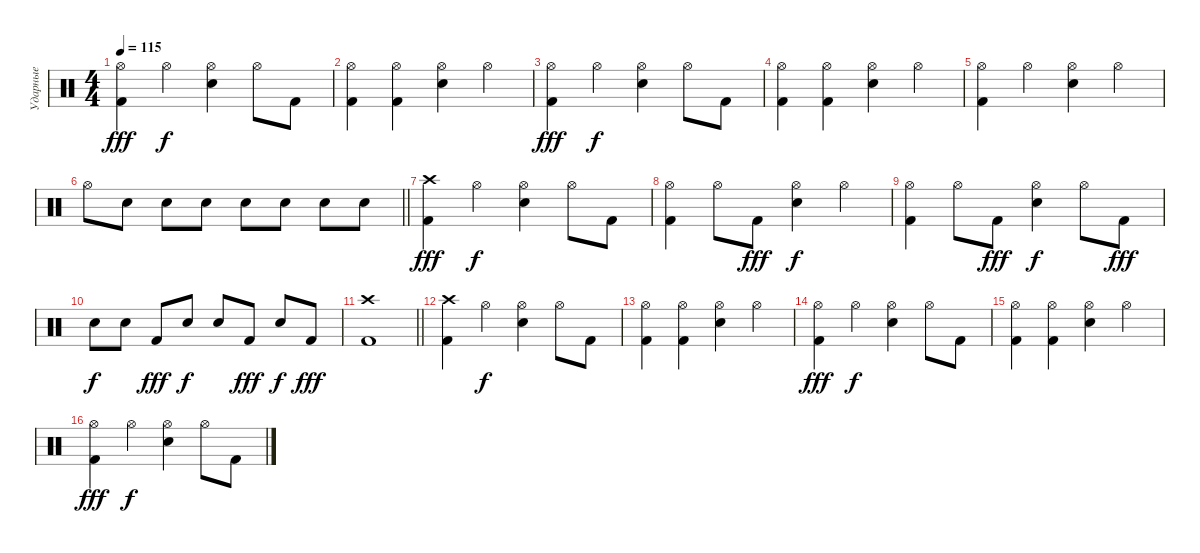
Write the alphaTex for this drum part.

\track ("Ударные" "Ударные") {instrument percussion}
\staff {score}
\articulation defaults
\ts (4 4)
\tempo 115
\clef neutral
\ks c
("Kick (hit) 2" "Hi-Hat (open)").4{dy fff} "Hi-Hat (open)".4{dy f} ("Snare (hit) 2" "Hi-Hat (open)").4 "Hi-Hat (open)".8 "Kick (hit) 2".8 |
("Kick (hit) 2" "Hi-Hat (open)").4 ("Kick (hit) 2" "Hi-Hat (open)").4 ("Snare (hit) 2" "Hi-Hat (open)").4 "Hi-Hat (open)".4 |
("Kick (hit) 2" "Hi-Hat (open)").4{dy fff} "Hi-Hat (open)".4{dy f} ("Snare (hit) 2" "Hi-Hat (open)").4 "Hi-Hat (open)".8 "Kick (hit) 2".8 |
("Kick (hit) 2" "Hi-Hat (open)").4 ("Kick (hit) 2" "Hi-Hat (open)").4 ("Snare (hit) 2" "Hi-Hat (open)").4 "Hi-Hat (open)".4 |
("Kick (hit) 2" "Hi-Hat (open)").4 "Hi-Hat (open)".4 ("Snare (hit) 2" "Hi-Hat (open)").4 "Hi-Hat (open)".4 |
\barLineRight lightlight "Hi-Hat (open)".8 "Snare (hit) 2".8 "Snare (hit) 2".8 "Snare (hit) 2".8 "Snare (hit) 2".8 "Snare (hit) 2".8 "Snare (hit) 2".8 "Snare (hit) 2".8
|
("Kick (hit) 2" "Crash high (hit)").4{dy fff} "Hi-Hat (open)".4{dy f} ("Snare (hit) 2" "Hi-Hat (open)").4 "Hi-Hat (open)".8 "Kick (hit) 2".8 |
("Kick (hit) 2" "Hi-Hat (open)").4 "Hi-Hat (open)".8 "Kick (hit) 2".8{dy fff} ("Snare (hit) 2" "Hi-Hat (open)").4{dy f} "Hi-Hat (open)".4 |
("Kick (hit) 2" "Hi-Hat (open)").4 "Hi-Hat (open)".8 "Kick (hit) 2".8{dy fff} ("Snare (hit) 2" "Hi-Hat (open)").4{dy f} "Hi-Hat (open)".8 "Kick (hit) 2".8{dy fff} |
"Snare (hit) 2".8{dy f} "Snare (hit) 2".8 "Kick (hit) 2".8{dy fff} "Snare (hit) 2".8{dy f} "Snare (hit) 2".8 "Kick (hit) 2".8{dy fff} "Snare (hit) 2".8{dy f} "Kick (hit) 2".8{dy fff} |
\barLineRight lightlight
("Kick (hit) 2" "Crash high (hit)").1 |
("Kick (hit) 2" "Crash high (hit)").4 "Hi-Hat (open)".4{dy f} ("Snare (hit) 2" "Hi-Hat (open)").4 "Hi-Hat (open)".8 "Kick (hit) 2".8 |
("Kick (hit) 2" "Hi-Hat (open)").4 ("Kick (hit) 2" "Hi-Hat (open)").4 ("Snare (hit) 2" "Hi-Hat (open)").4 "Hi-Hat (open)".4 |
("Kick (hit) 2" "Hi-Hat (open)").4{dy fff} "Hi-Hat (open)".4{dy f} ("Snare (hit) 2" "Hi-Hat (open)").4 "Hi-Hat (open)".8 "Kick (hit) 2".8 |
("Kick (hit) 2" "Hi-Hat (open)").4 ("Kick (hit) 2" "Hi-Hat (open)").4 ("Snare (hit) 2" "Hi-Hat (open)").4 "Hi-Hat (open)".4 |
("Kick (hit) 2" "Hi-Hat (open)").4{dy fff} "Hi-Hat (open)".4{dy f} ("Snare (hit) 2" "Hi-Hat (open)").4 "Hi-Hat (open)".8 "Kick (hit) 2".8
